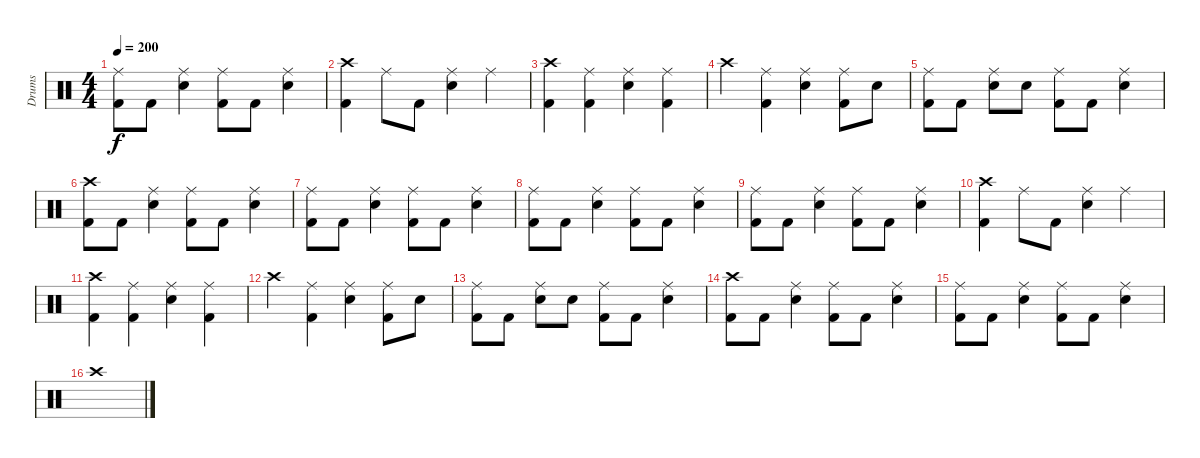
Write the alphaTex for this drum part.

\track ("Drums" "Drums") {instrument percussion}
\staff {score}
\articulation defaults
\ts (4 4)
\tempo 200
\clef neutral
\ks c
("Ride (middle)" "Kick (hit) 2").8{dy f} "Kick (hit) 2".8 ("Ride (middle)" "Electric Snare (hit)").4 ("Ride (middle)" "Kick (hit) 2").8 "Kick (hit) 2".8 ("Ride (middle)" "Electric Snare (hit)").4 |
("Crash high (hit)" "Kick (hit) 2").4 "Ride (middle)".8 "Kick (hit) 2".8 ("Ride (middle)" "Electric Snare (hit)").4 "Ride (middle)".4 |
("Crash high (hit)" "Kick (hit) 2").4 ("Ride (middle)" "Kick (hit) 2").4 ("Ride (middle)" "Electric Snare (hit)").4 ("Ride (middle)" "Kick (hit) 2").4 |
"Crash high (hit)".4 ("Ride (middle)" "Kick (hit) 2").4 ("Ride (middle)" "Electric Snare (hit)").4 ("Ride (middle)" "Kick (hit) 2").8 "Electric Snare (hit)".8 |
("Ride (middle)" "Kick (hit) 2").8 "Kick (hit) 2".8 ("Ride (middle)" "Electric Snare (hit)").8 "Electric Snare (hit)".8 ("Ride (middle)" "Kick (hit) 2").8 "Kick (hit) 2".8 ("Ride (middle)" "Electric Snare (hit)").4 |
("Crash high (hit)" "Kick (hit) 2").8 "Kick (hit) 2".8 ("Ride (middle)" "Electric Snare (hit)").4 ("Ride (middle)" "Kick (hit) 2").8 "Kick (hit) 2".8 ("Ride (middle)" "Electric Snare (hit)").4 |
("Ride (middle)" "Kick (hit) 2").8 "Kick (hit) 2".8 ("Ride (middle)" "Electric Snare (hit)").4 ("Ride (middle)" "Kick (hit) 2").8 "Kick (hit) 2".8 ("Ride (middle)" "Electric Snare (hit)").4 |
("Ride (middle)" "Kick (hit) 2").8 "Kick (hit) 2".8 ("Ride (middle)" "Electric Snare (hit)").4 ("Ride (middle)" "Kick (hit) 2").8 "Kick (hit) 2".8 ("Ride (middle)" "Electric Snare (hit)").4 |
("Ride (middle)" "Kick (hit) 2").8 "Kick (hit) 2".8 ("Ride (middle)" "Electric Snare (hit)").4 ("Ride (middle)" "Kick (hit) 2").8 "Kick (hit) 2".8 ("Ride (middle)" "Electric Snare (hit)").4 |
("Crash high (hit)" "Kick (hit) 2").4 "Ride (middle)".8 "Kick (hit) 2".8 ("Ride (middle)" "Electric Snare (hit)").4 "Ride (middle)".4 |
("Crash high (hit)" "Kick (hit) 2").4 ("Ride (middle)" "Kick (hit) 2").4 ("Ride (middle)" "Electric Snare (hit)").4 ("Ride (middle)" "Kick (hit) 2").4 |
"Crash high (hit)".4 ("Ride (middle)" "Kick (hit) 2").4 ("Ride (middle)" "Electric Snare (hit)").4 ("Ride (middle)" "Kick (hit) 2").8 "Electric Snare (hit)".8 |
("Ride (middle)" "Kick (hit) 2").8 "Kick (hit) 2".8 ("Ride (middle)" "Electric Snare (hit)").8 "Electric Snare (hit)".8 ("Ride (middle)" "Kick (hit) 2").8 "Kick (hit) 2".8 ("Ride (middle)" "Electric Snare (hit)").4 |
("Crash high (hit)" "Kick (hit) 2").8 "Kick (hit) 2".8 ("Ride (middle)" "Electric Snare (hit)").4 ("Ride (middle)" "Kick (hit) 2").8 "Kick (hit) 2".8 ("Ride (middle)" "Electric Snare (hit)").4 |
("Ride (middle)" "Kick (hit) 2").8 "Kick (hit) 2".8 ("Ride (middle)" "Electric Snare (hit)").4 ("Ride (middle)" "Kick (hit) 2").8 "Kick (hit) 2".8 ("Ride (middle)" "Electric Snare (hit)").4 |
"Crash high (hit)".1
